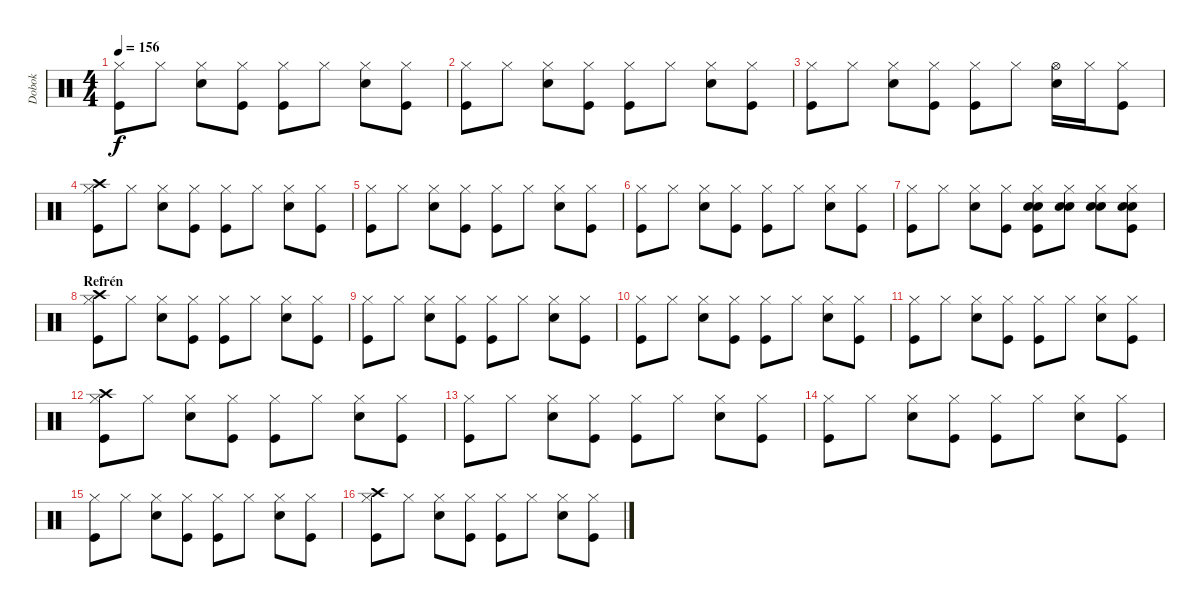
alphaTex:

\track ("Dobok" "Dobok") {instrument percussion}
\staff {score}
\articulation defaults
\ts (4 4)
\tempo 156
\clef neutral
\ks c
("Hi-Hat (closed)" "Kick (hit)").8{dy f} "Hi-Hat (closed)".8 ("Hi-Hat (closed)" "Electric Snare (hit)").8 ("Hi-Hat (closed)" "Kick (hit)").8 ("Hi-Hat (closed)" "Kick (hit)").8 "Hi-Hat (closed)".8 ("Hi-Hat (closed)" "Electric Snare (hit)").8 ("Hi-Hat (closed)" "Kick (hit)").8 |
("Hi-Hat (closed)" "Kick (hit)").8 "Hi-Hat (closed)".8 ("Hi-Hat (closed)" "Electric Snare (hit)").8 ("Hi-Hat (closed)" "Kick (hit)").8 ("Hi-Hat (closed)" "Kick (hit)").8 "Hi-Hat (closed)".8 ("Hi-Hat (closed)" "Electric Snare (hit)").8 ("Hi-Hat (closed)" "Kick (hit)").8 |
("Hi-Hat (closed)" "Kick (hit)").8 "Hi-Hat (closed)".8 ("Hi-Hat (closed)" "Electric Snare (hit)").8 ("Hi-Hat (closed)" "Kick (hit)").8 ("Hi-Hat (closed)" "Kick (hit)").8 "Hi-Hat (closed)".8 ("Hi-Hat (open)" "Electric Snare (hit)").16 "Hi-Hat (closed)".16 ("Hi-Hat (closed)" "Kick (hit)").8 |
("Hi-Hat (closed)" "Crash high (hit)" "Kick (hit)").8 "Hi-Hat (closed)".8 ("Hi-Hat (closed)" "Electric Snare (hit)").8 ("Hi-Hat (closed)" "Kick (hit)").8 ("Hi-Hat (closed)" "Kick (hit)").8 "Hi-Hat (closed)".8 ("Hi-Hat (closed)" "Electric Snare (hit)").8 ("Hi-Hat (closed)" "Kick (hit)").8 |
("Hi-Hat (closed)" "Kick (hit)").8 "Hi-Hat (closed)".8 ("Hi-Hat (closed)" "Electric Snare (hit)").8 ("Hi-Hat (closed)" "Kick (hit)").8 ("Hi-Hat (closed)" "Kick (hit)").8 "Hi-Hat (closed)".8 ("Hi-Hat (closed)" "Electric Snare (hit)").8 ("Hi-Hat (closed)" "Kick (hit)").8 |
("Hi-Hat (closed)" "Kick (hit)").8 "Hi-Hat (closed)".8 ("Hi-Hat (closed)" "Electric Snare (hit)").8 ("Hi-Hat (closed)" "Kick (hit)").8 ("Hi-Hat (closed)" "Kick (hit)").8 "Hi-Hat (closed)".8 ("Hi-Hat (closed)" "Electric Snare (hit)").8 ("Hi-Hat (closed)" "Kick (hit)").8 |
("Hi-Hat (closed)" "Kick (hit)").8 "Hi-Hat (closed)".8 ("Hi-Hat (closed)" "Electric Snare (hit)").8 ("Hi-Hat (closed)" "Kick (hit)").8 ("Hi-Hat (closed)" "Electric Snare (hit)" "Snare (hit) 2" "Kick (hit)").8 ("Hi-Hat (closed)" "Electric Snare (hit)" "Snare (hit) 2").8 ("Hi-Hat (closed)" "Electric Snare (hit)" "Snare (hit) 2").8 ("Hi-Hat (closed)" "Electric Snare (hit)" "Snare (hit) 2" "Kick (hit)").8 |
\section ("" "Refrén")
("Hi-Hat (closed)" "Crash high (hit)" "Kick (hit)").8 "Hi-Hat (closed)".8 ("Hi-Hat (closed)" "Electric Snare (hit)").8 ("Hi-Hat (closed)" "Kick (hit)").8 ("Hi-Hat (closed)" "Kick (hit)").8 "Hi-Hat (closed)".8 ("Hi-Hat (closed)" "Electric Snare (hit)").8 ("Hi-Hat (closed)" "Kick (hit)").8 |
("Hi-Hat (closed)" "Kick (hit)").8 "Hi-Hat (closed)".8 ("Hi-Hat (closed)" "Electric Snare (hit)").8 ("Hi-Hat (closed)" "Kick (hit)").8 ("Hi-Hat (closed)" "Kick (hit)").8 "Hi-Hat (closed)".8 ("Hi-Hat (closed)" "Electric Snare (hit)").8 ("Hi-Hat (closed)" "Kick (hit)").8 |
("Hi-Hat (closed)" "Kick (hit)").8 "Hi-Hat (closed)".8 ("Hi-Hat (closed)" "Electric Snare (hit)").8 ("Hi-Hat (closed)" "Kick (hit)").8 ("Hi-Hat (closed)" "Kick (hit)").8 "Hi-Hat (closed)".8 ("Hi-Hat (closed)" "Electric Snare (hit)").8 ("Hi-Hat (closed)" "Kick (hit)").8 |
("Hi-Hat (closed)" "Kick (hit)").8 "Hi-Hat (closed)".8 ("Hi-Hat (closed)" "Electric Snare (hit)").8 ("Hi-Hat (closed)" "Kick (hit)").8 ("Hi-Hat (closed)" "Kick (hit)").8 "Hi-Hat (closed)".8 ("Hi-Hat (closed)" "Electric Snare (hit)").8 ("Hi-Hat (closed)" "Kick (hit)").8 |
("Hi-Hat (closed)" "Crash high (hit)" "Kick (hit)").8 "Hi-Hat (closed)".8 ("Hi-Hat (closed)" "Electric Snare (hit)").8 ("Hi-Hat (closed)" "Kick (hit)").8 ("Hi-Hat (closed)" "Kick (hit)").8 "Hi-Hat (closed)".8 ("Hi-Hat (closed)" "Electric Snare (hit)").8 ("Hi-Hat (closed)" "Kick (hit)").8 |
("Hi-Hat (closed)" "Kick (hit)").8 "Hi-Hat (closed)".8 ("Hi-Hat (closed)" "Electric Snare (hit)").8 ("Hi-Hat (closed)" "Kick (hit)").8 ("Hi-Hat (closed)" "Kick (hit)").8 "Hi-Hat (closed)".8 ("Hi-Hat (closed)" "Electric Snare (hit)").8 ("Hi-Hat (closed)" "Kick (hit)").8 |
("Hi-Hat (closed)" "Kick (hit)").8 "Hi-Hat (closed)".8 ("Hi-Hat (closed)" "Electric Snare (hit)").8 ("Hi-Hat (closed)" "Kick (hit)").8 ("Hi-Hat (closed)" "Kick (hit)").8 "Hi-Hat (closed)".8 ("Hi-Hat (closed)" "Electric Snare (hit)").8 ("Hi-Hat (closed)" "Kick (hit)").8 |
("Hi-Hat (closed)" "Kick (hit)").8 "Hi-Hat (closed)".8 ("Hi-Hat (closed)" "Electric Snare (hit)").8 ("Hi-Hat (closed)" "Kick (hit)").8 ("Hi-Hat (closed)" "Kick (hit)").8 "Hi-Hat (closed)".8 ("Hi-Hat (closed)" "Electric Snare (hit)").8 ("Hi-Hat (closed)" "Kick (hit)").8 |
("Hi-Hat (closed)" "Crash high (hit)" "Kick (hit)").8 "Hi-Hat (closed)".8 ("Hi-Hat (closed)" "Electric Snare (hit)").8 ("Hi-Hat (closed)" "Kick (hit)").8 ("Hi-Hat (closed)" "Kick (hit)").8 "Hi-Hat (closed)".8 ("Hi-Hat (closed)" "Electric Snare (hit)").8 ("Hi-Hat (closed)" "Kick (hit)").8
